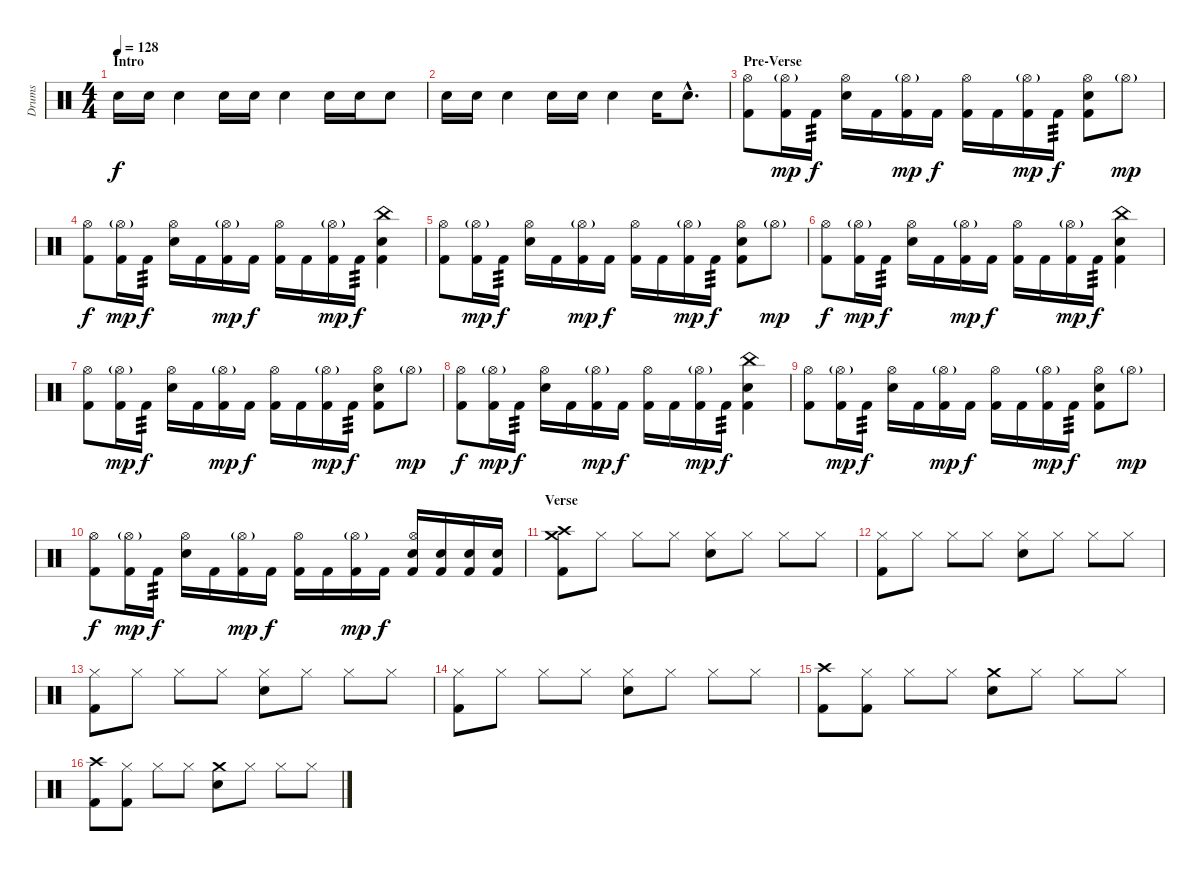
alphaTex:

\track ("Drums" "Drums") {instrument percussion}
\staff {score}
\articulation defaults
\ts (4 4)
\section ("" "Intro")
\tempo 128
\clef neutral
\ks c "Snare (hit) 2".16{dy f} "Snare (hit) 2".16 "Snare (hit) 2".4 "Snare (hit) 2".16 "Snare (hit) 2".16 "Snare (hit) 2".4 "Snare (hit) 2".16 "Snare (hit) 2".16 "Snare (hit) 2".8
|
"Snare (hit) 2".16 "Snare (hit) 2".16 "Snare (hit) 2".4 "Snare (hit) 2".16 "Snare (hit) 2".16 "Snare (hit) 2".4 "Snare (hit) 2".16 "Snare (hit) 2"{hac}.8{d} |
\section ("" "Pre-Verse")
("Hi-Hat (open)" "Kick (hit) 2").8 ("Hi-Hat (open)"{g} "Kick (hit) 2").16{dy mp} "Kick (hit) 2".16{tp 3 dy f} ("Hi-Hat (open)" "Snare (hit) 2").16 "Kick (hit) 2".16 ("Hi-Hat (open)"{g} "Kick (hit) 2").16{dy mp} "Kick (hit) 2".16{dy f} ("Hi-Hat (open)" "Kick (hit) 2").16 "Kick (hit) 2".16 ("Hi-Hat (open)"{g} "Kick (hit) 2").16{dy mp} "Kick (hit) 2".16{tp 3 dy f} ("Hi-Hat (open)" "Snare (hit) 2" "Kick (hit) 2").8 "Hi-Hat (open)"{g}.8{dy mp} |
("Hi-Hat (open)" "Kick (hit) 2").8{dy f} ("Hi-Hat (open)"{g} "Kick (hit) 2").16{dy mp} "Kick (hit) 2".16{tp 3 dy f} ("Hi-Hat (open)" "Snare (hit) 2").16 "Kick (hit) 2".16 ("Hi-Hat (open)"{g} "Kick (hit) 2").16{dy mp} "Kick (hit) 2".16{dy f} ("Hi-Hat (open)" "Kick (hit) 2").16 "Kick (hit) 2".16 ("Hi-Hat (open)"{g} "Kick (hit) 2").16{dy mp} "Kick (hit) 2".16{tp 3 dy f} ("China (hit)" "Snare (hit) 2" "Kick (hit) 2").4 |
("Hi-Hat (open)" "Kick (hit) 2").8 ("Hi-Hat (open)"{g} "Kick (hit) 2").16{dy mp} "Kick (hit) 2".16{tp 3 dy f} ("Hi-Hat (open)" "Snare (hit) 2").16 "Kick (hit) 2".16 ("Hi-Hat (open)"{g} "Kick (hit) 2").16{dy mp} "Kick (hit) 2".16{dy f} ("Hi-Hat (open)" "Kick (hit) 2").16 "Kick (hit) 2".16 ("Hi-Hat (open)"{g} "Kick (hit) 2").16{dy mp} "Kick (hit) 2".16{tp 3 dy f} ("Hi-Hat (open)" "Snare (hit) 2" "Kick (hit) 2").8 "Hi-Hat (open)"{g}.8{dy mp} |
("Hi-Hat (open)" "Kick (hit) 2").8{dy f} ("Hi-Hat (open)"{g} "Kick (hit) 2").16{dy mp} "Kick (hit) 2".16{tp 3 dy f} ("Hi-Hat (open)" "Snare (hit) 2").16 "Kick (hit) 2".16 ("Hi-Hat (open)"{g} "Kick (hit) 2").16{dy mp} "Kick (hit) 2".16{dy f} ("Hi-Hat (open)" "Kick (hit) 2").16 "Kick (hit) 2".16 ("Hi-Hat (open)"{g} "Kick (hit) 2").16{dy mp} "Kick (hit) 2".16{tp 3 dy f} ("China (hit)" "Snare (hit) 2" "Kick (hit) 2").4 |
("Hi-Hat (open)" "Kick (hit) 2").8 ("Hi-Hat (open)"{g} "Kick (hit) 2").16{dy mp} "Kick (hit) 2".16{tp 3 dy f} ("Hi-Hat (open)" "Snare (hit) 2").16 "Kick (hit) 2".16 ("Hi-Hat (open)"{g} "Kick (hit) 2").16{dy mp} "Kick (hit) 2".16{dy f} ("Hi-Hat (open)" "Kick (hit) 2").16 "Kick (hit) 2".16 ("Hi-Hat (open)"{g} "Kick (hit) 2").16{dy mp} "Kick (hit) 2".16{tp 3 dy f} ("Hi-Hat (open)" "Snare (hit) 2" "Kick (hit) 2").8 "Hi-Hat (open)"{g}.8{dy mp} |
("Hi-Hat (open)" "Kick (hit) 2").8{dy f} ("Hi-Hat (open)"{g} "Kick (hit) 2").16{dy mp} "Kick (hit) 2".16{tp 3 dy f} ("Hi-Hat (open)" "Snare (hit) 2").16 "Kick (hit) 2".16 ("Hi-Hat (open)"{g} "Kick (hit) 2").16{dy mp} "Kick (hit) 2".16{dy f} ("Hi-Hat (open)" "Kick (hit) 2").16 "Kick (hit) 2".16 ("Hi-Hat (open)"{g} "Kick (hit) 2").16{dy mp} "Kick (hit) 2".16{tp 3 dy f} ("China (hit)" "Snare (hit) 2" "Kick (hit) 2").4 |
("Hi-Hat (open)" "Kick (hit) 2").8 ("Hi-Hat (open)"{g} "Kick (hit) 2").16{dy mp} "Kick (hit) 2".16{tp 3 dy f} ("Hi-Hat (open)" "Snare (hit) 2").16 "Kick (hit) 2".16 ("Hi-Hat (open)"{g} "Kick (hit) 2").16{dy mp} "Kick (hit) 2".16{dy f} ("Hi-Hat (open)" "Kick (hit) 2").16 "Kick (hit) 2".16 ("Hi-Hat (open)"{g} "Kick (hit) 2").16{dy mp} "Kick (hit) 2".16{tp 3 dy f} ("Hi-Hat (open)" "Snare (hit) 2" "Kick (hit) 2").8 "Hi-Hat (open)"{g}.8{dy mp} |
("Hi-Hat (open)" "Kick (hit) 2").8{dy f} ("Hi-Hat (open)"{g} "Kick (hit) 2").16{dy mp} "Kick (hit) 2".16{tp 3 dy f} ("Hi-Hat (open)" "Snare (hit) 2").16 "Kick (hit) 2".16 ("Hi-Hat (open)"{g} "Kick (hit) 2").16{dy mp} "Kick (hit) 2".16{dy f} ("Hi-Hat (open)" "Kick (hit) 2").16 "Kick (hit) 2".16 ("Hi-Hat (open)"{g} "Kick (hit) 2").16{dy mp} "Kick (hit) 2".16{dy f} ("Hi-Hat (open)" "Snare (hit) 2" "Kick (hit) 2").16 ("Snare (hit) 2" "Kick (hit) 2").16 ("Snare (hit) 2" "Kick (hit) 2").16 ("Snare (hit) 2" "Kick (hit) 2").16 |
\section ("" "Verse")
("Crash high (hit)" "Crash medium (hit)" "Kick (hit) 2").8 "Hi-Hat (closed)".8 "Hi-Hat (closed)".8 "Hi-Hat (closed)".8 ("Hi-Hat (closed)" "Snare (hit) 2").8 "Hi-Hat (closed)".8 "Hi-Hat (closed)".8 "Hi-Hat (closed)".8 |
("Hi-Hat (closed)" "Kick (hit) 2").8 "Hi-Hat (closed)".8 "Hi-Hat (closed)".8 "Hi-Hat (closed)".8 ("Hi-Hat (closed)" "Snare (hit) 2").8 "Hi-Hat (closed)".8 "Hi-Hat (closed)".8 "Hi-Hat (closed)".8 |
("Hi-Hat (closed)" "Kick (hit) 2").8 "Hi-Hat (closed)".8 "Hi-Hat (closed)".8 "Hi-Hat (closed)".8 ("Hi-Hat (closed)" "Snare (hit) 2").8 "Hi-Hat (closed)".8 "Hi-Hat (closed)".8 "Hi-Hat (closed)".8 |
("Hi-Hat (closed)" "Kick (hit) 2").8 "Hi-Hat (closed)".8 "Hi-Hat (closed)".8 "Hi-Hat (closed)".8 ("Hi-Hat (closed)" "Snare (hit) 2").8 "Hi-Hat (closed)".8 "Hi-Hat (closed)".8 "Hi-Hat (closed)".8 |
("Crash high (hit)" "Kick (hit) 2").8 ("Hi-Hat (closed)" "Kick (hit) 2").8 "Hi-Hat (closed)".8 "Hi-Hat (closed)".8 ("Crash medium (hit)" "Snare (hit) 2").8 "Hi-Hat (closed)".8 "Hi-Hat (closed)".8 "Hi-Hat (closed)".8 |
("Crash high (hit)" "Kick (hit) 2").8 ("Hi-Hat (closed)" "Kick (hit) 2").8 "Hi-Hat (closed)".8 "Hi-Hat (closed)".8 ("Crash medium (hit)" "Snare (hit) 2").8 "Hi-Hat (closed)".8 "Hi-Hat (closed)".8 "Hi-Hat (closed)".8
